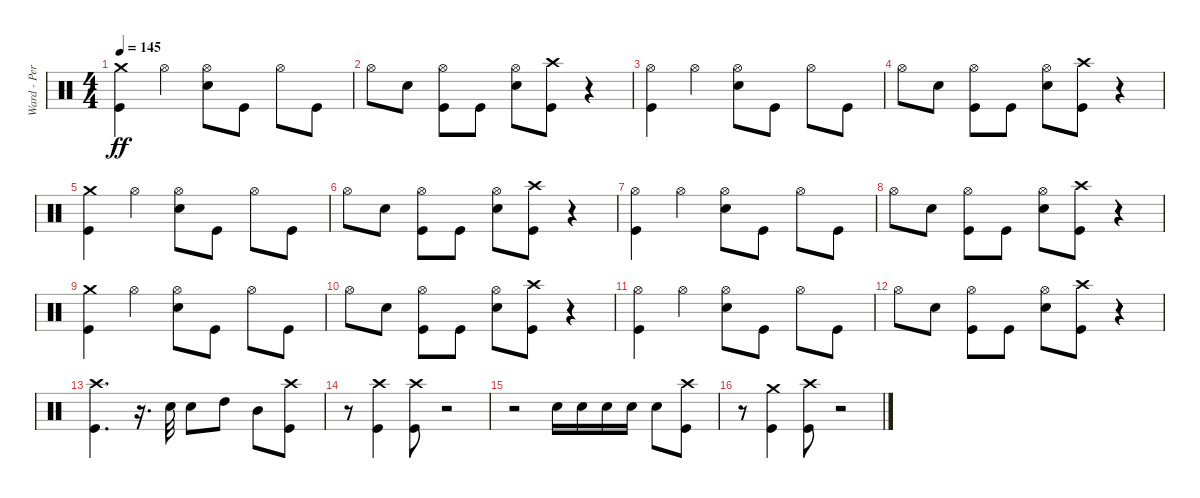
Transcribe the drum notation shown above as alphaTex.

\track ("Ward - Percussion" "Ward - Per") {instrument percussion}
\staff {score}
\articulation defaults
\ts (4 4)
\tempo 145
\clef neutral
\ks c
("Kick (hit)" "Crash medium (hit)").4{dy ff} "Hi-Hat (open)".4 ("Hi-Hat (open)" "Snare (hit) 2").8 "Kick (hit)".8 "Hi-Hat (open)".8 "Kick (hit)".8 |
"Hi-Hat (open)".8 "Snare (hit) 2".8 ("Hi-Hat (open)" "Kick (hit)").8 "Kick (hit)".8 ("Hi-Hat (open)" "Snare (hit) 2").8 ("Kick (hit)" "Crash high (hit)").8 r.4 |
("Hi-Hat (open)" "Kick (hit)").4 "Hi-Hat (open)".4 ("Hi-Hat (open)" "Snare (hit) 2").8 "Kick (hit)".8 "Hi-Hat (open)".8 "Kick (hit)".8 |
"Hi-Hat (open)".8 "Snare (hit) 2".8 ("Hi-Hat (open)" "Kick (hit)").8 "Kick (hit)".8 ("Hi-Hat (open)" "Snare (hit) 2").8 ("Kick (hit)" "Crash high (hit)").8 r.4 |
("Kick (hit)" "Crash medium (hit)").4 "Hi-Hat (open)".4 ("Hi-Hat (open)" "Snare (hit) 2").8 "Kick (hit)".8 "Hi-Hat (open)".8 "Kick (hit)".8 |
"Hi-Hat (open)".8 "Snare (hit) 2".8 ("Hi-Hat (open)" "Kick (hit)").8 "Kick (hit)".8 ("Hi-Hat (open)" "Snare (hit) 2").8 ("Kick (hit)" "Crash high (hit)").8 r.4 |
("Hi-Hat (open)" "Kick (hit)").4 "Hi-Hat (open)".4 ("Hi-Hat (open)" "Snare (hit) 2").8 "Kick (hit)".8 "Hi-Hat (open)".8 "Kick (hit)".8 |
"Hi-Hat (open)".8 "Snare (hit) 2".8 ("Hi-Hat (open)" "Kick (hit)").8 "Kick (hit)".8 ("Hi-Hat (open)" "Snare (hit) 2").8 ("Kick (hit)" "Crash high (hit)").8 r.4 |
("Kick (hit)" "Crash medium (hit)").4 "Hi-Hat (open)".4 ("Hi-Hat (open)" "Snare (hit) 2").8 "Kick (hit)".8 "Hi-Hat (open)".8 "Kick (hit)".8 |
"Hi-Hat (open)".8 "Snare (hit) 2".8 ("Hi-Hat (open)" "Kick (hit)").8 "Kick (hit)".8 ("Hi-Hat (open)" "Snare (hit) 2").8 ("Kick (hit)" "Crash high (hit)").8 r.4 |
("Hi-Hat (open)" "Kick (hit)").4 "Hi-Hat (open)".4 ("Hi-Hat (open)" "Snare (hit) 2").8 "Kick (hit)".8 "Hi-Hat (open)".8 "Kick (hit)".8 |
"Hi-Hat (open)".8 "Snare (hit) 2".8 ("Hi-Hat (open)" "Kick (hit)").8 "Kick (hit)".8 ("Hi-Hat (open)" "Snare (hit) 2").8 ("Kick (hit)" "Crash high (hit)").8 r.4 |
("Kick (hit)" "Crash high (hit)").4{d} r.16{d} "Snare (hit) 2".32 "Snare (hit) 2".8 "High Tom (hit)".8 "Mid Tom (hit)".8 ("Kick (hit)" "Crash high (hit)").8 |
r.8 ("Kick (hit)" "Crash high (hit)").4 ("Kick (hit)" "Crash high (hit)").8 r.2 |
r.2 "Snare (hit) 2".16 "Snare (hit) 2".16 "Snare (hit) 2".16 "Snare (hit) 2".16 "Snare (hit) 2".8 ("Kick (hit)" "Crash high (hit)").8 |
r.8 ("Kick (hit)" "Crash medium (hit)").4 ("Kick (hit)" "Crash high (hit)").8 r.2
